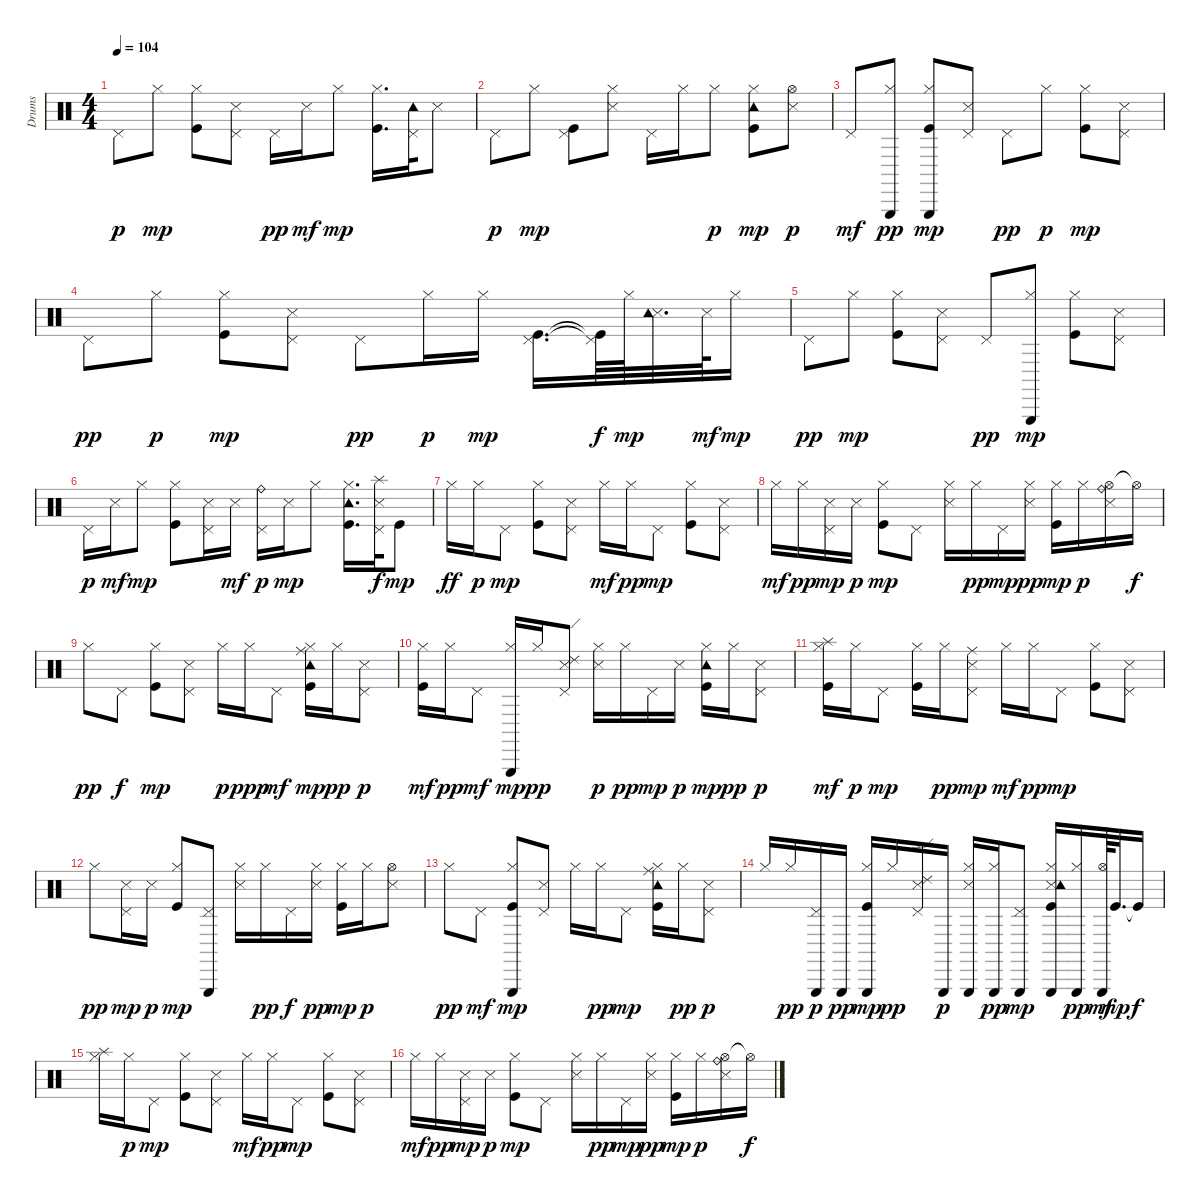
\track ("Drums" "Drums") {instrument percussion}
\staff {score}
\articulation defaults
\ts (4 4)
\tempo 104
\clef neutral
\ks c "Pedal Hi-Hat (hit)".8{dy p} "Hi-Hat (closed)".8{dy mp}
("Hi-Hat (closed)" "Kick (hit)").8 ("Pedal Hi-Hat (hit)" "Snare (side stick) 3").8 "Pedal Hi-Hat (hit)".16{dy pp} "Snare (side stick) 3".16{dy mf} "Hi-Hat (closed)".8{dy mp} ("Hi-Hat (closed)" "Kick (hit)").16{d} ("Pedal Hi-Hat (hit)" "Tambourine (hit)").32 "Snare (side stick) 3".8 |
"Pedal Hi-Hat (hit)".8{dy p} "Hi-Hat (closed)".8{dy mp} ("Pedal Hi-Hat (hit)" "Kick (hit)").8 ("Hi-Hat (closed)" "Snare (side stick) 3").8 "Pedal Hi-Hat (hit)".16 "Hi-Hat (closed)".16 "Hi-Hat (closed)".8{dy p} ("Hi-Hat (closed)" "Tambourine (hit)" "Kick (hit)").8{dy mp} ("Hi-Hat (open)" "Snare (side stick) 3").8{dy p} |
"Pedal Hi-Hat (hit)".8{dy mf} ("Hi-Hat (closed)" "Triangle (hit)").8{dy pp} ("Hi-Hat (closed)" "Triangle (hit)" "Kick (hit)").8{dy mp} ("Pedal Hi-Hat (hit)" "Snare (side stick) 3").8 "Pedal Hi-Hat (hit)".8{dy pp} "Hi-Hat (closed)".8{dy p} ("Hi-Hat (closed)" "Kick (hit)").8{dy mp} ("Pedal Hi-Hat (hit)" "Snare (side stick) 3").8 |
"Pedal Hi-Hat (hit)".8{dy pp} "Hi-Hat (closed)".8{dy p} ("Hi-Hat (closed)" "Kick (hit)").8{dy mp} ("Pedal Hi-Hat (hit)" "Snare (side stick) 3").8 "Pedal Hi-Hat (hit)".8{dy pp} "Hi-Hat (closed)".16{dy p} "Hi-Hat (closed)".16{dy mp} ("Pedal Hi-Hat (hit)" "Kick (hit)").16{d} ("Pedal Hi-Hat (hit)"{t} "Kick (hit)"{t}).64{dy f} "Hi-Hat (closed)".64{dy mp} ("Snare (side stick) 3" "Tambourine (hit)").32{d} "Snare (side stick) 3".64{dy mf} "Hi-Hat (closed)".16{dy mp} |
"Pedal Hi-Hat (hit)".8{dy pp} "Hi-Hat (closed)".8{dy mp} ("Hi-Hat (closed)" "Kick (hit)").8 ("Pedal Hi-Hat (hit)" "Snare (side stick) 3").8 "Pedal Hi-Hat (hit)".8{dy pp} ("Hi-Hat (closed)" "Triangle (hit)").8{dy mp} ("Hi-Hat (closed)" "Kick (hit)").8 ("Pedal Hi-Hat (hit)" "Snare (side stick) 3").8 |
"Pedal Hi-Hat (hit)".16{dy p} "Snare (side stick) 3".16{dy mf} "Hi-Hat (closed)".8{dy mp} ("Hi-Hat (closed)" "Kick (hit)").8 ("Pedal Hi-Hat (hit)" "Snare (side stick) 3").16 "Snare (side stick) 3".16{dy mf} ("Pedal Hi-Hat (hit)" "Ride (bell)").16{dy p} "Snare (side stick) 3".16{dy mp} "Hi-Hat (closed)".8 ("Hi-Hat (closed)" "Tambourine (hit)" "Kick (hit)").16{d} ("Pedal Hi-Hat (hit)" "Splash (hit)" "Snare (side stick) 3").32{dy f} "Kick (hit)".8{dy mp} |
"Hi-Hat (closed)".16{dy ff} "Hi-Hat (closed)".16{dy p} "Pedal Hi-Hat (hit)".8{dy mp} ("Hi-Hat (closed)" "Kick (hit)").8 ("Pedal Hi-Hat (hit)" "Snare (side stick) 3").8 "Hi-Hat (closed)".16{dy mf} "Hi-Hat (closed)".16{dy pp} "Pedal Hi-Hat (hit)".8{dy mp} ("Hi-Hat (closed)" "Kick (hit)").8 ("Pedal Hi-Hat (hit)" "Snare (side stick) 3").8 |
"Hi-Hat (closed)".16{dy mf} "Hi-Hat (closed)".16{dy pp} ("Pedal Hi-Hat (hit)" "Snare (side stick) 3").16{dy mp} "Snare (side stick) 3".16{dy p} ("Hi-Hat (closed)" "Kick (hit)").8{dy mp} "Pedal Hi-Hat (hit)".8 ("Hi-Hat (closed)" "Snare (side stick) 3").16 "Hi-Hat (closed)".16{dy pp} "Pedal Hi-Hat (hit)".16{dy mp} ("Hi-Hat (closed)" "Snare (side stick) 3").16{dy pp} ("Hi-Hat (closed)" "Kick (hit)").16{dy mp} "Hi-Hat (closed)".16{dy p} ("Hi-Hat (open)" "Snare (side stick) 3" "Ride (bell)").16 "Hi-Hat (open)"{t}.16{dy f} |
"Hi-Hat (closed)".8{dy pp} "Pedal Hi-Hat (hit)".8{dy f} ("Hi-Hat (closed)" "Kick (hit)").8{dy mp} ("Pedal Hi-Hat (hit)" "Snare (side stick) 3").8 "Hi-Hat (closed)".16{dy p} "Hi-Hat (closed)".16{dy ppp} "Pedal Hi-Hat (hit)".8{dy mf} ("Hi-Hat (closed)" "Ride (middle)" "Tambourine (hit)" "Kick (hit)").16{dy mp} "Hi-Hat (closed)".16{dy pp} ("Pedal Hi-Hat (hit)" "Snare (side stick) 3").8{dy p} |
("Hi-Hat (closed)" "Kick (hit)").16{dy mf} "Hi-Hat (closed)".16{dy pp} "Pedal Hi-Hat (hit)".8{dy mf} ("Hi-Hat (closed)" "Triangle (hit)").16{dy mp} "Hi-Hat (closed)".16{dy pp} ("Pedal Hi-Hat (hit)" "Ride (edge) 2" "Snare (side stick) 3").8 ("Hi-Hat (closed)" "Snare (side stick) 3").16{dy p} "Hi-Hat (closed)".16{dy pp} "Pedal Hi-Hat (hit)".16{dy mp} "Snare (side stick) 3".16{dy p} ("Hi-Hat (closed)" "Tambourine (hit)" "Kick (hit)").16{dy mp} "Hi-Hat (closed)".16{dy pp} ("Pedal Hi-Hat (hit)" "Snare (side stick) 3").8{dy p} |
("Hi-Hat (closed)" "Splash (hit)" "Kick (hit)").16{dy mf} "Hi-Hat (closed)".16{dy p} "Pedal Hi-Hat (hit)".8{dy mp} ("Hi-Hat (closed)" "Kick (hit)").16 "Hi-Hat (closed)".16{dy pp} ("Pedal Hi-Hat (hit)" "Ride (middle)" "Snare (side stick) 3").8{dy mp} "Hi-Hat (closed)".16{dy mf} "Hi-Hat (closed)".16{dy pp} "Pedal Hi-Hat (hit)".8{dy mp} ("Hi-Hat (closed)" "Kick (hit)").8 ("Pedal Hi-Hat (hit)" "Snare (side stick) 3").8 |
"Hi-Hat (closed)".8{dy pp} ("Pedal Hi-Hat (hit)" "Snare (side stick) 3").16{dy mp} "Snare (side stick) 3".16{dy p} ("Hi-Hat (closed)" "Kick (hit)").8{dy mp} ("Pedal Hi-Hat (hit)" "Triangle (hit)").8 ("Hi-Hat (closed)" "Snare (side stick) 3").16 "Hi-Hat (closed)".16{dy pp} "Pedal Hi-Hat (hit)".16{dy f} ("Hi-Hat (closed)" "Snare (side stick) 3").16{dy pp} ("Hi-Hat (closed)" "Kick (hit)").16{dy mp} "Hi-Hat (closed)".16{dy p} ("Hi-Hat (open)" "Snare (side stick) 3").8 |
"Hi-Hat (closed)".8{dy pp} "Pedal Hi-Hat (hit)".8{dy mf} ("Hi-Hat (closed)" "Triangle (hit)" "Kick (hit)").8{dy mp} ("Pedal Hi-Hat (hit)" "Snare (side stick) 3").8 "Hi-Hat (closed)".16 "Hi-Hat (closed)".16{dy pp} "Pedal Hi-Hat (hit)".8{dy mp} ("Hi-Hat (closed)" "Ride (middle)" "Tambourine (hit)" "Kick (hit)").16 "Hi-Hat (closed)".16{dy pp} ("Pedal Hi-Hat (hit)" "Snare (side stick) 3").8{dy p} |
"Hi-Hat (closed)".16 "Hi-Hat (closed)".16{dy pp} ("Pedal Hi-Hat (hit)" "Triangle (hit)").16{dy p} "Triangle (hit)".16{dy pp} ("Hi-Hat (closed)" "Triangle (hit)" "Kick (hit)").16{dy mp} "Hi-Hat (closed)".16{dy pp} ("Pedal Hi-Hat (hit)" "Ride (edge) 2" "Snare (side stick) 3").16 "Triangle (hit)".16{dy p} ("Hi-Hat (closed)" "Snare (side stick) 3" "Triangle (hit)").16 ("Hi-Hat (closed)" "Triangle (hit)").16{dy pp} ("Pedal Hi-Hat (hit)" "Triangle (hit)").8{dy mp} ("Hi-Hat (closed)" "Snare (side stick) 3" "Tambourine (hit)" "Triangle (hit)" "Kick (hit)").16 ("Hi-Hat (closed)" "Triangle (hit)").16{dy pp} ("Hi-Hat (open)" "Triangle (hit)").64{dy mf} "Kick (hit)".32{d dy mp} "Kick (hit)"{t}.16{dy f} |
("Hi-Hat (closed)" "Splash (hit)").16 "Hi-Hat (closed)".16{dy p} "Pedal Hi-Hat (hit)".8{dy mp} ("Hi-Hat (closed)" "Kick (hit)").8 ("Pedal Hi-Hat (hit)" "Snare (side stick) 3").8 "Hi-Hat (closed)".16{dy mf} "Hi-Hat (closed)".16{dy pp} "Pedal Hi-Hat (hit)".8{dy mp} ("Hi-Hat (closed)" "Kick (hit)").8 ("Pedal Hi-Hat (hit)" "Snare (side stick) 3").8 |
"Hi-Hat (closed)".16{dy mf} "Hi-Hat (closed)".16{dy pp} ("Pedal Hi-Hat (hit)" "Snare (side stick) 3").16{dy mp} "Snare (side stick) 3".16{dy p} ("Hi-Hat (closed)" "Kick (hit)").8{dy mp} "Pedal Hi-Hat (hit)".8 ("Hi-Hat (closed)" "Snare (side stick) 3").16 "Hi-Hat (closed)".16{dy pp} "Pedal Hi-Hat (hit)".16{dy mp} ("Hi-Hat (closed)" "Snare (side stick) 3").16{dy pp} ("Hi-Hat (closed)" "Kick (hit)").16{dy mp} "Hi-Hat (closed)".16{dy p} ("Hi-Hat (open)" "Snare (side stick) 3" "Ride (bell)").16 "Hi-Hat (open)"{t}.16{dy f}
